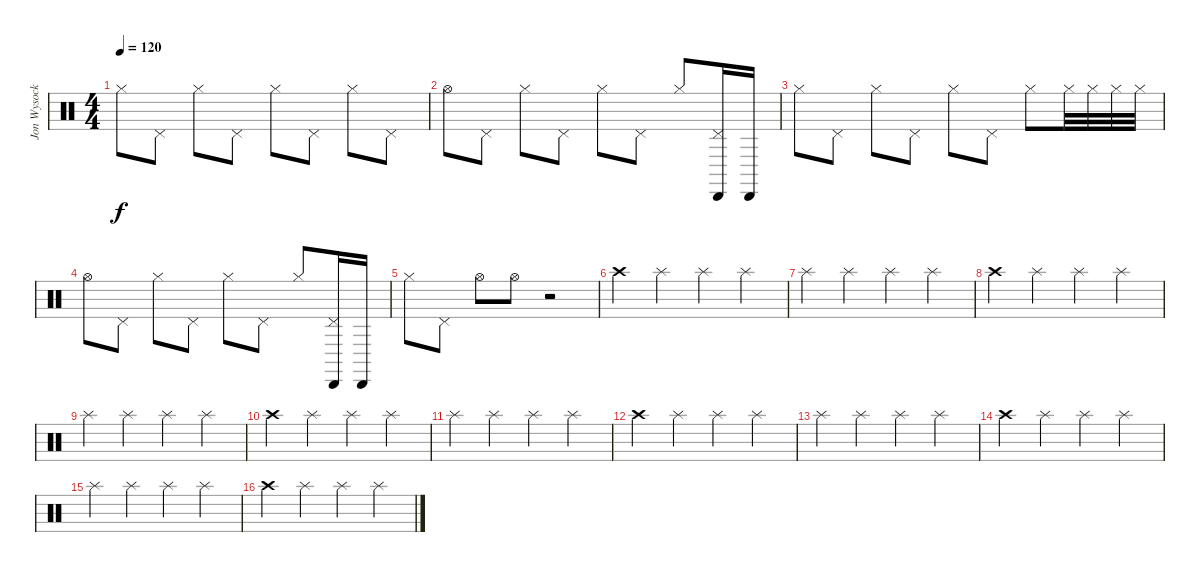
\track ("Jon Wysocki cymbals" "Jon Wysock") {instrument percussion}
\staff {score}
\articulation defaults
\ts (4 4)
\tempo 120
\clef neutral
\ks c "Hi-Hat (closed)".8{dy f} "Pedal Hi-Hat (hit)".8 "Hi-Hat (closed)".8 "Pedal Hi-Hat (hit)".8 "Hi-Hat (closed)".8 "Pedal Hi-Hat (hit)".8 "Hi-Hat (closed)".8 "Pedal Hi-Hat (hit)".8
|
"Hi-Hat (open)".8 "Pedal Hi-Hat (hit)".8 "Hi-Hat (closed)".8 "Pedal Hi-Hat (hit)".8 "Hi-Hat (closed)".8 "Pedal Hi-Hat (hit)".8 "Hi-Hat (closed)".8 ("Cabasa (hit)" "Pedal Hi-Hat (hit)").16 "Cabasa (hit)".16 |
"Hi-Hat (closed)".8 "Pedal Hi-Hat (hit)".8 "Hi-Hat (closed)".8 "Pedal Hi-Hat (hit)".8 "Hi-Hat (closed)".8 "Pedal Hi-Hat (hit)".8 "Hi-Hat (closed)".8 "Hi-Hat (closed)".32 "Hi-Hat (closed)".32 "Hi-Hat (closed)".32 "Hi-Hat (closed)".32 |
"Hi-Hat (open)".8 "Pedal Hi-Hat (hit)".8 "Hi-Hat (closed)".8 "Pedal Hi-Hat (hit)".8 "Hi-Hat (closed)".8 "Pedal Hi-Hat (hit)".8 "Hi-Hat (closed)".8 ("Cabasa (hit)" "Pedal Hi-Hat (hit)").16 "Cabasa (hit)".16 |
"Hi-Hat (closed)".8 "Pedal Hi-Hat (hit)".8 "Hi-Hat (open)".8 "Hi-Hat (open)".8 r.2 |
"Crash high (hit)".4 "Splash (hit)".4 "Splash (hit)".4 "Splash (hit)".4 |
"Splash (hit)".4 "Splash (hit)".4 "Splash (hit)".4 "Splash (hit)".4 |
"Crash high (hit)".4 "Splash (hit)".4 "Splash (hit)".4 "Splash (hit)".4 |
"Splash (hit)".4 "Splash (hit)".4 "Splash (hit)".4 "Splash (hit)".4 |
"Crash high (hit)".4 "Splash (hit)".4 "Splash (hit)".4 "Splash (hit)".4 |
"Splash (hit)".4 "Splash (hit)".4 "Splash (hit)".4 "Splash (hit)".4 |
"Crash high (hit)".4 "Splash (hit)".4 "Splash (hit)".4 "Splash (hit)".4 |
"Splash (hit)".4 "Splash (hit)".4 "Splash (hit)".4 "Splash (hit)".4 |
"Crash high (hit)".4 "Splash (hit)".4 "Splash (hit)".4 "Splash (hit)".4 |
"Splash (hit)".4 "Splash (hit)".4 "Splash (hit)".4 "Splash (hit)".4 |
"Crash high (hit)".4 "Splash (hit)".4 "Splash (hit)".4 "Splash (hit)".4
